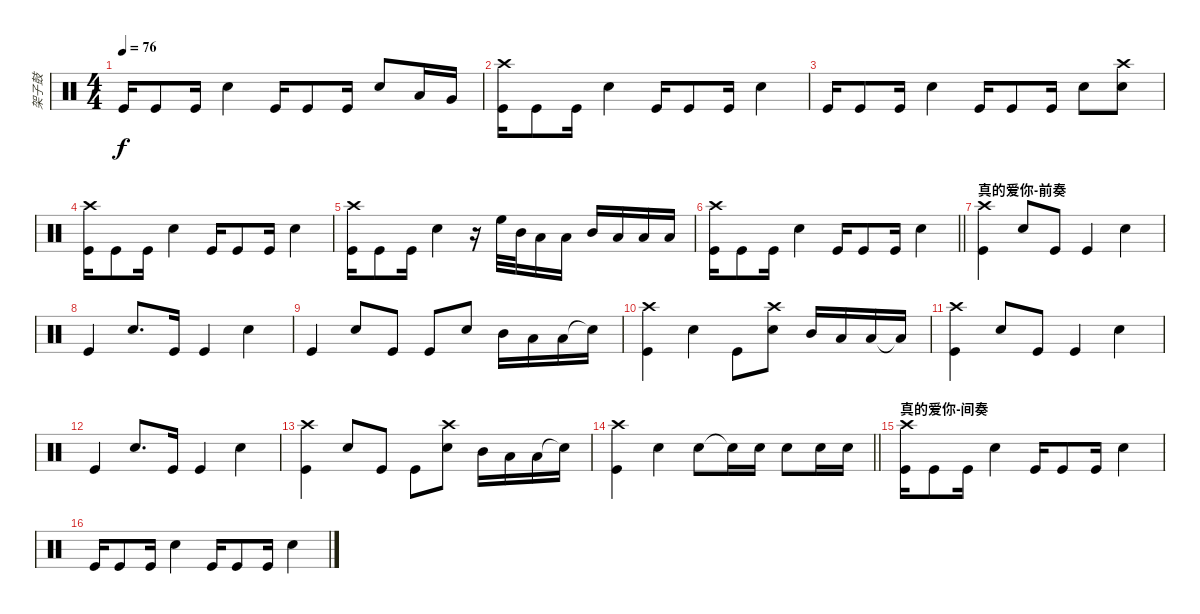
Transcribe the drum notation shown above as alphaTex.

\track ("架子鼓" "架子鼓") {instrument percussion}
\staff {score}
\articulation defaults
\ts (4 4)
\tempo 76
\clef neutral
\ks c "Kick (hit)".16{dy f} "Kick (hit)".8 "Kick (hit)".16 "Electric Snare (hit)".4 "Kick (hit)".16 "Kick (hit)".8 "Kick (hit)".16 "Electric Snare (hit)".8 "Low Tom (hit)".16 "Very Low Tom (hit)".16
|
("Crash high (hit)" "Kick (hit)").16 "Kick (hit)".8 "Kick (hit)".16 "Electric Snare (hit)".4 "Kick (hit)".16 "Kick (hit)".8 "Kick (hit)".16 "Electric Snare (hit)".4 |
"Kick (hit)".16 "Kick (hit)".8 "Kick (hit)".16 "Electric Snare (hit)".4 "Kick (hit)".16 "Kick (hit)".8 "Kick (hit)".16 "Electric Snare (hit)".8 ("Crash high (hit)" "Electric Snare (hit)").8 |
("Crash high (hit)" "Kick (hit)").16 "Kick (hit)".8 "Kick (hit)".16 "Electric Snare (hit)".4 "Kick (hit)".16 "Kick (hit)".8 "Kick (hit)".16 "Electric Snare (hit)".4 |
("Crash high (hit)" "Kick (hit)").16 "Kick (hit)".8 "Kick (hit)".16 "Electric Snare (hit)".4 r.16 "High Floor Tom (hit)".32 "Mid Tom (hit)".32 "Low Tom (hit)".16 "Low Tom (hit)".16 "Mid Tom (hit)".16 "Low Tom (hit)".16 "Low Floor Tom (hit)".16 "Low Floor Tom (hit)".16 |
\barLineRight lightlight
("Crash high (hit)" "Kick (hit)").16 "Kick (hit)".8 "Kick (hit)".16 "Electric Snare (hit)".4 "Kick (hit)".16 "Kick (hit)".8 "Kick (hit)".16 "Electric Snare (hit)".4 |
\section ("" "真的爱你-前奏")
("Crash high (hit)" "Kick (hit)").4 "Electric Snare (hit)".8 "Kick (hit)".8 "Kick (hit)".4 "Electric Snare (hit)".4 |
"Kick (hit)".4 "Electric Snare (hit)".8{d} "Kick (hit)".16 "Kick (hit)".4 "Electric Snare (hit)".4 |
"Kick (hit)".4 "Electric Snare (hit)".8 "Kick (hit)".8 "Kick (hit)".8 "Electric Snare (hit)".8 "Mid Tom (hit)".16 "Low Tom (hit)".16 "Low Floor Tom (hit)".16 "Electric Snare (hit)"{t}.16 |
("Crash high (hit)" "Kick (hit)").4 "Electric Snare (hit)".4 "Kick (hit)".8 ("Crash high (hit)" "Electric Snare (hit)").8 "Mid Tom (hit)".16 "Low Tom (hit)".16 "Low Floor Tom (hit)".16 "Low Tom (hit)"{t}.16 |
("Crash high (hit)" "Kick (hit)").4 "Electric Snare (hit)".8 "Kick (hit)".8 "Kick (hit)".4 "Electric Snare (hit)".4 |
"Kick (hit)".4 "Electric Snare (hit)".8{d} "Kick (hit)".16 "Kick (hit)".4 "Electric Snare (hit)".4 |
("Crash high (hit)" "Kick (hit)").4 "Electric Snare (hit)".8 "Kick (hit)".8 "Kick (hit)".8 ("Crash high (hit)" "Electric Snare (hit)").8 "Mid Tom (hit)".16 "Low Tom (hit)".16 "Low Floor Tom (hit)".16 "Electric Snare (hit)"{t}.16 |
\barLineRight lightlight
("Crash high (hit)" "Kick (hit)").4 "Electric Snare (hit)".4 "Electric Snare (hit)".8 "Snare (hit)"{t}.16 "Electric Snare (hit)".16 "Electric Snare (hit)".8 "Electric Snare (hit)".16 "Electric Snare (hit)".16 |
\section ("" "真的爱你-间奏")
("Crash high (hit)" "Kick (hit)").16 "Kick (hit)".8 "Kick (hit)".16 "Electric Snare (hit)".4 "Kick (hit)".16 "Kick (hit)".8 "Kick (hit)".16 "Electric Snare (hit)".4 |
"Kick (hit)".16 "Kick (hit)".8 "Kick (hit)".16 "Electric Snare (hit)".4 "Kick (hit)".16 "Kick (hit)".8 "Kick (hit)".16 "Electric Snare (hit)".4
